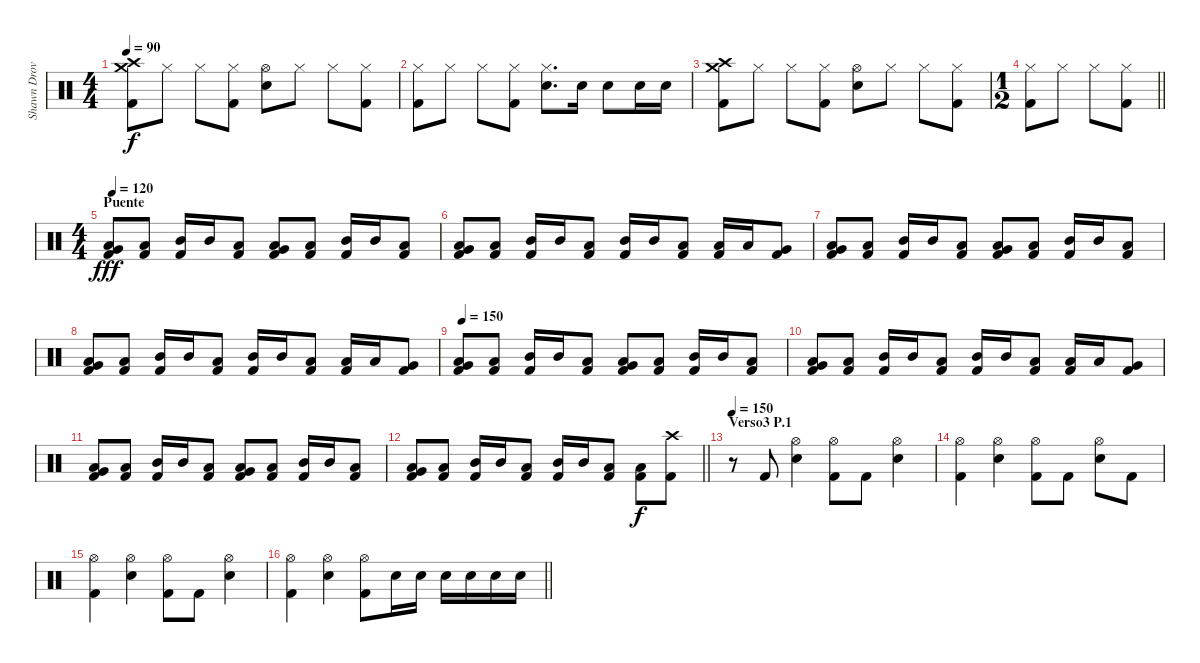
\track ("Shawn Drover" "Shawn Drov") {instrument percussion}
\staff {score}
\articulation defaults
\ts (4 4)
\tempo 90
\clef neutral
\ks c
("Crash high (hit)" "Crash medium (hit)" "Kick (hit) 2").8{dy f} "Hi-Hat (closed)".8 "Hi-Hat (closed)".8 ("Hi-Hat (closed)" "Kick (hit) 2").8 ("Hi-Hat (open)" "Electric Snare (hit)").8 "Hi-Hat (closed)".8 "Hi-Hat (closed)".8 ("Hi-Hat (closed)" "Kick (hit) 2").8 |
("Hi-Hat (closed)" "Kick (hit) 2").8 "Hi-Hat (closed)".8 "Hi-Hat (closed)".8 ("Hi-Hat (closed)" "Kick (hit) 2").8 ("Hi-Hat (closed)" "Electric Snare (hit)").8{d} "Electric Snare (hit)".16 "Electric Snare (hit)".8 "Electric Snare (hit)".16 "Electric Snare (hit)".16 |
("Crash high (hit)" "Crash medium (hit)" "Kick (hit) 2").8 "Hi-Hat (closed)".8 "Hi-Hat (closed)".8 ("Hi-Hat (closed)" "Kick (hit) 2").8 ("Hi-Hat (open)" "Electric Snare (hit)").8 "Hi-Hat (closed)".8 "Hi-Hat (closed)".8 ("Hi-Hat (closed)" "Kick (hit) 2").8 |
\ts (1 2)
\barLineRight lightlight
("Hi-Hat (closed)" "Kick (hit) 2").8 "Hi-Hat (closed)".8 "Hi-Hat (closed)".8 ("Hi-Hat (closed)" "Kick (hit) 2").8 |
\ts (4 4)
\section ("" "Puente")
\tempo 120
("Very Low Tom (hit)" "Low Floor Tom (hit)" "Kick (hit) 2").8{dy fff} ("Low Floor Tom (hit)" "Kick (hit) 2").8 ("Mid Tom (hit)" "Kick (hit) 2").16 "Mid Tom (hit)".16 ("Low Tom (hit)" "Kick (hit) 2").8 ("Very Low Tom (hit)" "Low Floor Tom (hit)" "Kick (hit) 2").8 ("Low Floor Tom (hit)" "Kick (hit) 2").8 ("Mid Tom (hit)" "Kick (hit) 2").16 "Mid Tom (hit)".16 ("Low Tom (hit)" "Kick (hit) 2").8 |
("Very Low Tom (hit)" "Low Floor Tom (hit)" "Kick (hit) 2").8 ("Low Floor Tom (hit)" "Kick (hit) 2").8 ("Mid Tom (hit)" "Kick (hit) 2").16 "Mid Tom (hit)".16 ("Low Tom (hit)" "Kick (hit) 2").8 ("Mid Tom (hit)" "Kick (hit) 2").16 "Mid Tom (hit)".16 ("Low Tom (hit)" "Kick (hit) 2").8 ("Low Tom (hit)" "Kick (hit) 2").16 "Low Tom (hit)".16 ("Very Low Tom (hit)" "Kick (hit) 2").8 |
("Very Low Tom (hit)" "Low Floor Tom (hit)" "Kick (hit) 2").8 ("Low Floor Tom (hit)" "Kick (hit) 2").8 ("Mid Tom (hit)" "Kick (hit) 2").16 "Mid Tom (hit)".16 ("Low Tom (hit)" "Kick (hit) 2").8 ("Very Low Tom (hit)" "Low Floor Tom (hit)" "Kick (hit) 2").8 ("Low Floor Tom (hit)" "Kick (hit) 2").8 ("Mid Tom (hit)" "Kick (hit) 2").16 "Mid Tom (hit)".16 ("Low Tom (hit)" "Kick (hit) 2").8 |
("Very Low Tom (hit)" "Low Floor Tom (hit)" "Kick (hit) 2").8 ("Low Floor Tom (hit)" "Kick (hit) 2").8 ("Mid Tom (hit)" "Kick (hit) 2").16 "Mid Tom (hit)".16 ("Low Tom (hit)" "Kick (hit) 2").8 ("Mid Tom (hit)" "Kick (hit) 2").16 "Mid Tom (hit)".16 ("Low Tom (hit)" "Kick (hit) 2").8 ("Low Tom (hit)" "Kick (hit) 2").16 "Low Tom (hit)".16 ("Very Low Tom (hit)" "Kick (hit) 2").8 |
\tempo 150
("Very Low Tom (hit)" "Low Floor Tom (hit)" "Kick (hit) 2").8 ("Low Floor Tom (hit)" "Kick (hit) 2").8 ("Mid Tom (hit)" "Kick (hit) 2").16 "Mid Tom (hit)".16 ("Low Tom (hit)" "Kick (hit) 2").8 ("Very Low Tom (hit)" "Low Floor Tom (hit)" "Kick (hit) 2").8 ("Low Floor Tom (hit)" "Kick (hit) 2").8 ("Mid Tom (hit)" "Kick (hit) 2").16 "Mid Tom (hit)".16 ("Low Tom (hit)" "Kick (hit) 2").8 |
("Very Low Tom (hit)" "Low Floor Tom (hit)" "Kick (hit) 2").8 ("Low Floor Tom (hit)" "Kick (hit) 2").8 ("Mid Tom (hit)" "Kick (hit) 2").16 "Mid Tom (hit)".16 ("Low Tom (hit)" "Kick (hit) 2").8 ("Mid Tom (hit)" "Kick (hit) 2").16 "Mid Tom (hit)".16 ("Low Tom (hit)" "Kick (hit) 2").8 ("Low Tom (hit)" "Kick (hit) 2").16 "Low Tom (hit)".16 ("Very Low Tom (hit)" "Kick (hit) 2").8 |
("Very Low Tom (hit)" "Low Floor Tom (hit)" "Kick (hit) 2").8 ("Low Floor Tom (hit)" "Kick (hit) 2").8 ("Mid Tom (hit)" "Kick (hit) 2").16 "Mid Tom (hit)".16 ("Low Tom (hit)" "Kick (hit) 2").8 ("Very Low Tom (hit)" "Low Floor Tom (hit)" "Kick (hit) 2").8 ("Low Floor Tom (hit)" "Kick (hit) 2").8 ("Mid Tom (hit)" "Kick (hit) 2").16 "Mid Tom (hit)".16 ("Low Tom (hit)" "Kick (hit) 2").8 |
\barLineRight lightlight
("Very Low Tom (hit)" "Low Floor Tom (hit)" "Kick (hit) 2").8 ("Low Floor Tom (hit)" "Kick (hit) 2").8 ("Mid Tom (hit)" "Kick (hit) 2").16 "Mid Tom (hit)".16 ("Low Tom (hit)" "Kick (hit) 2").8 ("Mid Tom (hit)" "Kick (hit) 2").16 "Mid Tom (hit)".16 ("Low Tom (hit)" "Kick (hit) 2").8 ("Low Tom (hit)" "Kick (hit) 2").8{dy f} ("Crash high (hit)" "Kick (hit) 2").8 |
\section ("" "Verso3 P.1")
\tempo 150
r.8 "Kick (hit) 2".8 ("Hi-Hat (open)" "Electric Snare (hit)").4 ("Hi-Hat (open)" "Kick (hit) 2").8 "Kick (hit) 2".8 ("Hi-Hat (open)" "Electric Snare (hit)").4 |
("Hi-Hat (open)" "Kick (hit) 2").4 ("Hi-Hat (open)" "Electric Snare (hit)").4 ("Hi-Hat (open)" "Kick (hit) 2").8 "Kick (hit) 2".8 ("Hi-Hat (open)" "Electric Snare (hit)").8 "Kick (hit) 2".8 |
("Hi-Hat (open)" "Kick (hit) 2").4 ("Hi-Hat (open)" "Electric Snare (hit)").4 ("Hi-Hat (open)" "Kick (hit) 2").8 "Kick (hit) 2".8 ("Hi-Hat (open)" "Electric Snare (hit)").4 |
\barLineRight lightlight
("Hi-Hat (open)" "Kick (hit) 2").4 ("Hi-Hat (open)" "Electric Snare (hit)").4 ("Hi-Hat (open)" "Kick (hit) 2").8 "Electric Snare (hit)".16 "Electric Snare (hit)".16 "Electric Snare (hit)".16 "Electric Snare (hit)".16 "Electric Snare (hit)".16 "Electric Snare (hit)".16
